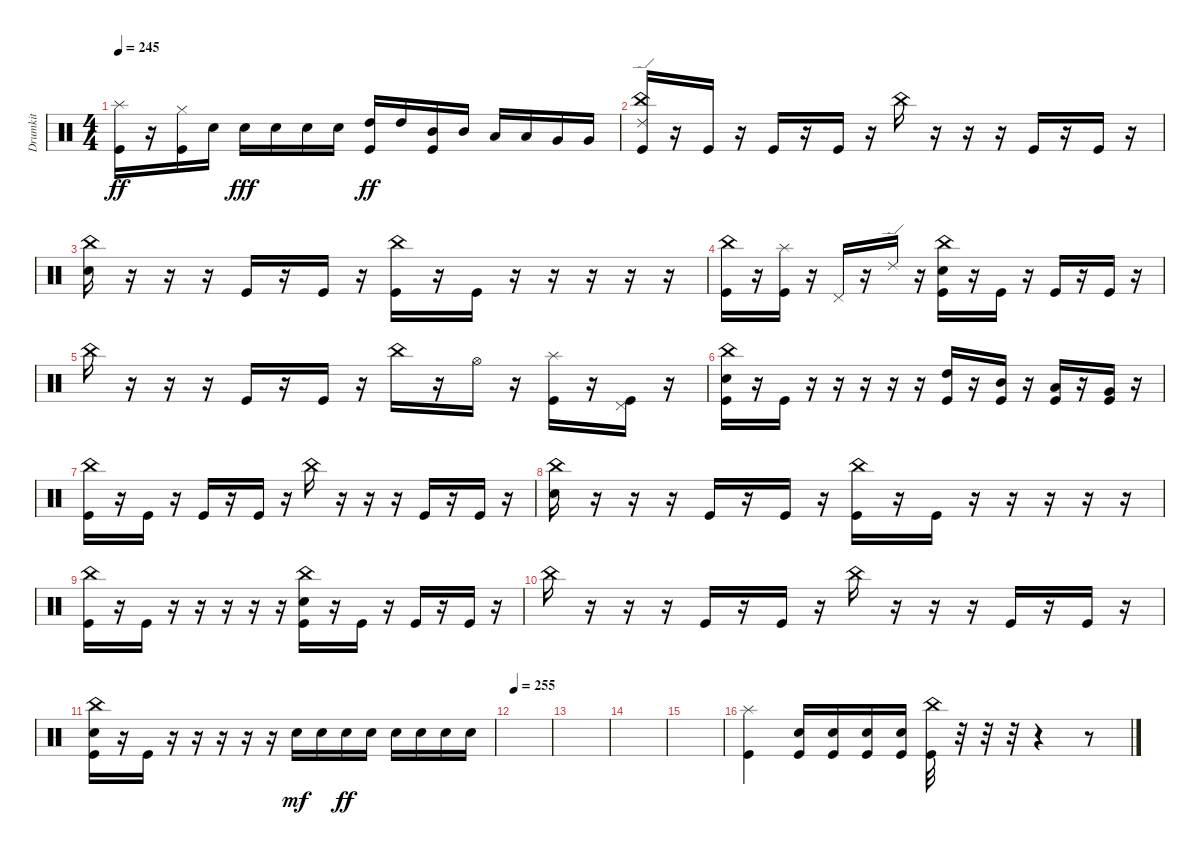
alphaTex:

\track ("Drumkit" "Drumkit") {instrument percussion}
\staff {score}
\articulation defaults
\ts (4 4)
\tempo 245
\clef neutral
\ks c
("Splash (hit)" "Kick (hit)").16{dy ff} r.16 ("Hi-Hat (closed)" "Kick (hit)").16 "Snare (hit) 2".16 "Snare (hit) 2".16{dy fff} "Snare (hit) 2".16 "Snare (hit) 2".16 "Snare (hit) 2".16 ("Kick (hit)" "High Tom (hit)").16{dy ff} "High Tom (hit)".16 ("Kick (hit)" "Mid Tom (hit)").16 "Mid Tom (hit)".16 "Low Tom (hit)".16 "Low Tom (hit)".16 "Very Low Tom (hit)".16 "Very Low Tom (hit)".16 |
("Kick (hit)" "China (hit)" "Ride (edge) 2").16 r.16 "Kick (hit)".16 r.16 "Kick (hit)".16 r.16 "Kick (hit)".16 r.16 "China (hit)".16 r.16 r.16 r.16 "Kick (hit)".16 r.16 "Kick (hit)".16 r.16 |
("China (hit)" "Snare (hit) 2").16 r.16 r.16 r.16 "Kick (hit)".16 r.16 "Kick (hit)".16 r.16 ("Kick (hit)" "China (hit)").16 r.16 "Kick (hit)".16 r.16 r.16 r.16 r.16 r.16 |
("Kick (hit)" "China (hit)").16 r.16 ("Kick (hit)" "Splash (hit)").16 r.16 "Pedal Hi-Hat (hit)".16 r.16 "Ride (edge) 2".16 r.16 ("Kick (hit)" "China (hit)" "Snare (hit) 2").16 r.16 "Kick (hit)".16 r.16 "Kick (hit)".16 r.16 "Kick (hit)".16 r.16 |
"China (hit)".16 r.16 r.16 r.16 "Kick (hit)".16 r.16 "Kick (hit)".16 r.16 "China (hit)".16 r.16 "Hi-Hat (open)".16 r.16 ("Kick (hit)" "Splash (hit)").16 r.16 ("Kick (hit)" "Pedal Hi-Hat (hit)").16 r.16 |
("Kick (hit)" "China (hit)" "Snare (hit) 2").16 r.16 "Kick (hit)".16 r.16 r.16 r.16 r.16 r.16 ("Kick (hit)" "High Tom (hit)").16 r.16 ("Kick (hit)" "Mid Tom (hit)").16 r.16 ("Low Tom (hit)" "Kick (hit)").16 r.16 ("Very Low Tom (hit)" "Kick (hit)").16 r.16 |
("Kick (hit)" "China (hit)").16 r.16 "Kick (hit)".16 r.16 "Kick (hit)".16 r.16 "Kick (hit)".16 r.16 "China (hit)".16 r.16 r.16 r.16 "Kick (hit)".16 r.16 "Kick (hit)".16 r.16 |
("China (hit)" "Snare (hit) 2").16 r.16 r.16 r.16 "Kick (hit)".16 r.16 "Kick (hit)".16 r.16 ("Kick (hit)" "China (hit)").16 r.16 "Kick (hit)".16 r.16 r.16 r.16 r.16 r.16 |
("Kick (hit)" "China (hit)").16 r.16 "Kick (hit)".16 r.16 r.16 r.16 r.16 r.16 ("Kick (hit)" "China (hit)" "Snare (hit) 2").16 r.16 "Kick (hit)".16 r.16 "Kick (hit)".16 r.16 "Kick (hit)".16 r.16 |
"China (hit)".16 r.16 r.16 r.16 "Kick (hit)".16 r.16 "Kick (hit)".16 r.16 "China (hit)".16 r.16 r.16 r.16 "Kick (hit)".16 r.16 "Kick (hit)".16 r.16 |
("Kick (hit)" "China (hit)" "Snare (hit) 2").16 r.16 "Kick (hit)".16 r.16 r.16 r.16 r.16 r.16 "Snare (hit) 2".16{dy mf} "Snare (hit) 2".16 "Snare (hit) 2".16{dy ff} "Snare (hit) 2".16 "Snare (hit) 2".16 "Snare (hit) 2".16 "Snare (hit) 2".16 "Snare (hit) 2".16 |
\tempo 255
|
|
|
|
("Splash (hit)" "Kick (hit)").4 ("Snare (hit) 2" "Kick (hit)").16 ("Snare (hit) 2" "Kick (hit)").16 ("Snare (hit) 2" "Kick (hit)").16 ("Snare (hit) 2" "Kick (hit)").16 ("China (hit)" "Kick (hit)").32 r.32 r.32 r.32 r.4 r.8
